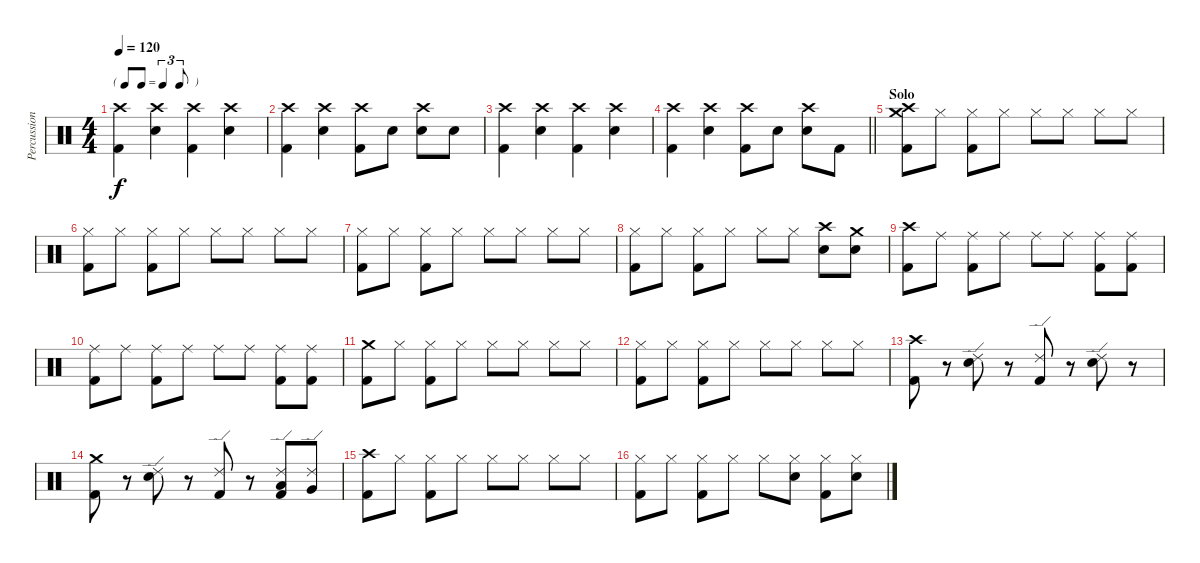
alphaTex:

\track ("Percussion" "Percussion") {instrument percussion}
\staff {score}
\articulation defaults
\ts (4 4)
\tf triplet8th
\tempo 120
\clef neutral
\ks c
("Crash high (hit)" "Kick (hit) 2").4{dy f} ("Crash high (hit)" "Snare (hit) 2").4 ("Crash high (hit)" "Kick (hit) 2").4 ("Crash high (hit)" "Snare (hit) 2").4 |
("Crash high (hit)" "Kick (hit) 2").4 ("Crash high (hit)" "Snare (hit) 2").4 ("Crash high (hit)" "Kick (hit) 2").8 "Snare (hit) 2".8 ("Crash high (hit)" "Snare (hit) 2").8 "Snare (hit) 2".8 |
("Crash high (hit)" "Kick (hit) 2").4 ("Crash high (hit)" "Snare (hit) 2").4 ("Crash high (hit)" "Kick (hit) 2").4 ("Crash high (hit)" "Snare (hit) 2").4 |
\barLineRight lightlight
("Crash high (hit)" "Kick (hit) 2").4 ("Crash high (hit)" "Snare (hit) 2").4 ("Crash high (hit)" "Kick (hit) 2").8 "Snare (hit) 2".8 ("Crash high (hit)" "Snare (hit) 2").8 "Kick (hit) 2".8 |
\section ("" "Solo")
("Crash high (hit)" "Crash medium (hit)" "Kick (hit) 2").8 "Hi-Hat (closed)".8 ("Hi-Hat (closed)" "Kick (hit) 2").8 "Hi-Hat (closed)".8 "Hi-Hat (closed)".8 "Hi-Hat (closed)".8 "Hi-Hat (closed)".8 "Hi-Hat (closed)".8 |
("Hi-Hat (closed)" "Kick (hit) 2").8 "Hi-Hat (closed)".8 ("Hi-Hat (closed)" "Kick (hit) 2").8 "Hi-Hat (closed)".8 "Hi-Hat (closed)".8 "Hi-Hat (closed)".8 "Hi-Hat (closed)".8 "Hi-Hat (closed)".8 |
("Hi-Hat (closed)" "Kick (hit) 2").8 "Hi-Hat (closed)".8 ("Hi-Hat (closed)" "Kick (hit) 2").8 "Hi-Hat (closed)".8 "Hi-Hat (closed)".8 "Hi-Hat (closed)".8 "Hi-Hat (closed)".8 "Hi-Hat (closed)".8 |
("Hi-Hat (closed)" "Kick (hit) 2").8 "Hi-Hat (closed)".8 ("Hi-Hat (closed)" "Kick (hit) 2").8 "Hi-Hat (closed)".8 "Hi-Hat (closed)".8 "Hi-Hat (closed)".8 ("Crash high (hit)" "Snare (hit) 2").8 ("Crash medium (hit)" "Snare (hit) 2").8 |
("Crash high (hit)" "Kick (hit) 2").8 "Ride (middle)".8 ("Ride (middle)" "Kick (hit) 2").8 "Ride (middle)".8 "Ride (middle)".8 "Ride (middle)".8 ("Ride (middle)" "Kick (hit) 2").8 ("Ride (middle)" "Kick (hit) 2").8 |
("Ride (middle)" "Kick (hit) 2").8 "Ride (middle)".8 ("Ride (middle)" "Kick (hit) 2").8 "Ride (middle)".8 "Ride (middle)".8 "Ride (middle)".8 ("Ride (middle)" "Kick (hit) 2").8 ("Ride (middle)" "Kick (hit) 2").8 |
("Crash medium (hit)" "Kick (hit) 2").8 "Hi-Hat (closed)".8 ("Hi-Hat (closed)" "Kick (hit) 2").8 "Hi-Hat (closed)".8 "Hi-Hat (closed)".8 "Hi-Hat (closed)".8 "Hi-Hat (closed)".8 "Hi-Hat (closed)".8 |
("Hi-Hat (closed)" "Kick (hit) 2").8 "Hi-Hat (closed)".8 ("Hi-Hat (closed)" "Kick (hit) 2").8 "Hi-Hat (closed)".8 "Hi-Hat (closed)".8 "Hi-Hat (closed)".8 "Hi-Hat (closed)".8 "Hi-Hat (closed)".8 |
("Crash high (hit)" "Kick (hit) 2").8 r.8 ("Ride (edge) 2" "Snare (hit) 2").8 r.8 ("Ride (edge) 2" "Kick (hit) 2").8 r.8 ("Ride (edge) 2" "Snare (hit) 2").8 r.8 |
("Crash medium (hit)" "Kick (hit) 2").8 r.8 ("Ride (edge) 2" "Snare (hit) 2").8 r.8 ("Ride (edge) 2" "Kick (hit) 2").8 r.8 ("Ride (edge) 2" "Low Tom (hit)" "Kick (hit) 2").8 ("Ride (edge) 2" "Very Low Tom (hit)").8 |
("Crash high (hit)" "Kick (hit) 2").8 "Hi-Hat (closed)".8 ("Hi-Hat (closed)" "Kick (hit) 2").8 "Hi-Hat (closed)".8 "Hi-Hat (closed)".8 "Hi-Hat (closed)".8 "Hi-Hat (closed)".8 "Hi-Hat (closed)".8 |
("Hi-Hat (closed)" "Kick (hit) 2").8 "Hi-Hat (closed)".8 ("Hi-Hat (closed)" "Kick (hit) 2").8 "Hi-Hat (closed)".8 "Hi-Hat (closed)".8 ("Hi-Hat (closed)" "Snare (hit) 2").8 ("Hi-Hat (closed)" "Kick (hit) 2").8 ("Hi-Hat (closed)" "Snare (hit) 2").8
